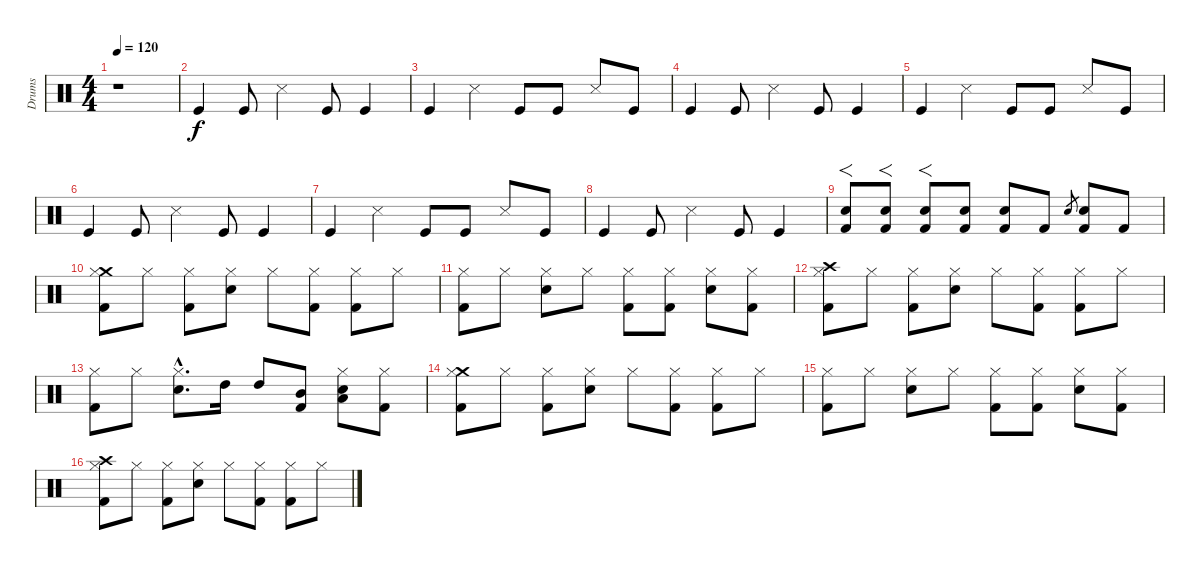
\track ("Drums" "Drums") {instrument percussion}
\staff {score}
\articulation defaults
\ts (4 4)
\tempo 120
\clef neutral
\ks c
r.1{dy f} |
"Kick (hit)".4 "Kick (hit)".8 "Snare (side stick) 3".4 "Kick (hit)".8 "Kick (hit)".4 |
"Kick (hit)".4 "Snare (side stick) 3".4 "Kick (hit)".8 "Kick (hit)".8 "Snare (side stick) 3".8 "Kick (hit)".8 |
"Kick (hit)".4 "Kick (hit)".8 "Snare (side stick) 3".4 "Kick (hit)".8 "Kick (hit)".4 |
"Kick (hit)".4 "Snare (side stick) 3".4 "Kick (hit)".8 "Kick (hit)".8 "Snare (side stick) 3".8 "Kick (hit)".8 |
"Kick (hit)".4 "Kick (hit)".8 "Snare (side stick) 3".4 "Kick (hit)".8 "Kick (hit)".4 |
"Kick (hit)".4 "Snare (side stick) 3".4 "Kick (hit)".8 "Kick (hit)".8 "Snare (side stick) 3".8 "Kick (hit)".8 |
"Kick (hit)".4 "Kick (hit)".8 "Snare (side stick) 3".4 "Kick (hit)".8 "Kick (hit)".4 |
("Snare (hit) 2" "Kick (hit) 2").8{f} ("Snare (hit) 2" "Kick (hit) 2").8{f} ("Snare (hit) 2" "Kick (hit) 2").8{f} ("Snare (hit) 2" "Kick (hit) 2").8 ("Snare (hit) 2" "Kick (hit) 2").8 "Kick (hit) 2".8 "Snare (hit) 2".8{gr} ("Snare (hit) 2" "Kick (hit) 2").8 "Kick (hit) 2".8 |
("Crash medium (hit)" "Hi-Hat (closed)" "Kick (hit) 2").8 "Hi-Hat (closed)".8 ("Hi-Hat (closed)" "Kick (hit) 2").8 ("Hi-Hat (closed)" "Snare (hit) 2").8 "Hi-Hat (closed)".8 ("Hi-Hat (closed)" "Kick (hit) 2").8 ("Hi-Hat (closed)" "Kick (hit) 2").8 "Hi-Hat (closed)".8 |
("Hi-Hat (closed)" "Kick (hit) 2").8 "Hi-Hat (closed)".8 ("Hi-Hat (closed)" "Snare (hit) 2").8 "Hi-Hat (closed)".8 ("Hi-Hat (closed)" "Kick (hit) 2").8 ("Hi-Hat (closed)" "Kick (hit) 2").8 ("Hi-Hat (closed)" "Snare (hit) 2").8 ("Hi-Hat (closed)" "Kick (hit) 2").8 |
("Crash high (hit)" "Hi-Hat (closed)" "Kick (hit) 2").8 "Hi-Hat (closed)".8 ("Hi-Hat (closed)" "Kick (hit) 2").8 ("Hi-Hat (closed)" "Snare (hit) 2").8 "Hi-Hat (closed)".8 ("Hi-Hat (closed)" "Kick (hit) 2").8 ("Hi-Hat (closed)" "Kick (hit) 2").8 "Hi-Hat (closed)".8 |
("Hi-Hat (closed)" "Kick (hit) 2").8 "Hi-Hat (closed)".8 ("Hi-Hat (closed)"{hac} "Snare (hit) 2"{hac}).8{d} "High Tom (hit)".16 "High Tom (hit)".8 ("Mid Tom (hit)" "Kick (hit) 2").8 ("Hi-Hat (closed)" "Low Tom (hit)" "Snare (hit) 2").8 ("Hi-Hat (closed)" "Kick (hit) 2").8 |
("Crash medium (hit)" "Hi-Hat (closed)" "Kick (hit) 2").8 "Hi-Hat (closed)".8 ("Hi-Hat (closed)" "Kick (hit) 2").8 ("Hi-Hat (closed)" "Snare (hit) 2").8 "Hi-Hat (closed)".8 ("Hi-Hat (closed)" "Kick (hit) 2").8 ("Hi-Hat (closed)" "Kick (hit) 2").8 "Hi-Hat (closed)".8 |
("Hi-Hat (closed)" "Kick (hit) 2").8 "Hi-Hat (closed)".8 ("Hi-Hat (closed)" "Snare (hit) 2").8 "Hi-Hat (closed)".8 ("Hi-Hat (closed)" "Kick (hit) 2").8 ("Hi-Hat (closed)" "Kick (hit) 2").8 ("Hi-Hat (closed)" "Snare (hit) 2").8 ("Hi-Hat (closed)" "Kick (hit) 2").8 |
("Crash high (hit)" "Hi-Hat (closed)" "Kick (hit) 2").8 "Hi-Hat (closed)".8 ("Hi-Hat (closed)" "Kick (hit) 2").8 ("Hi-Hat (closed)" "Snare (hit) 2").8 "Hi-Hat (closed)".8 ("Hi-Hat (closed)" "Kick (hit) 2").8 ("Hi-Hat (closed)" "Kick (hit) 2").8 "Hi-Hat (closed)".8
